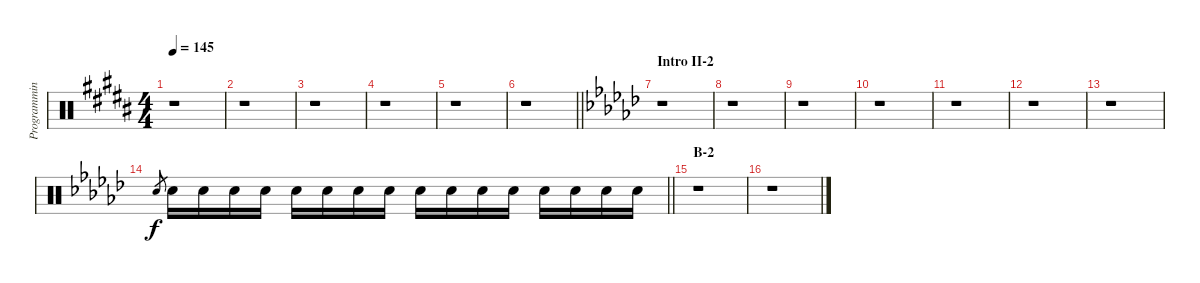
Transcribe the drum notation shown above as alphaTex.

\track ("Programming Drums II" "Programmin") {instrument percussion}
\staff {score}
\articulation defaults
\ts (4 4)
\tempo 145
\clef neutral
\ks b
r.1{dy f} |
r.1 |
r.1 |
r.1 |
r.1 |
\barLineRight lightlight
r.1 |
\section ("" "Intro II-2")
\ks gb
r.1 |
r.1 |
r.1 |
r.1 |
r.1 |
r.1 |
r.1 |
\barLineRight lightlight "Electric Snare (hit)".8{gr} "Electric Snare (hit)".16 "Electric Snare (hit)".16 "Electric Snare (hit)".16 "Electric Snare (hit)".16 "Electric Snare (hit)".16 "Electric Snare (hit)".16 "Electric Snare (hit)".16 "Electric Snare (hit)".16 "Electric Snare (hit)".16 "Electric Snare (hit)".16 "Electric Snare (hit)".16 "Electric Snare (hit)".16 "Electric Snare (hit)".16 "Electric Snare (hit)".16 "Electric Snare (hit)".16 "Electric Snare (hit)".16
|
\section ("" "B-2")
r.1 |
r.1
